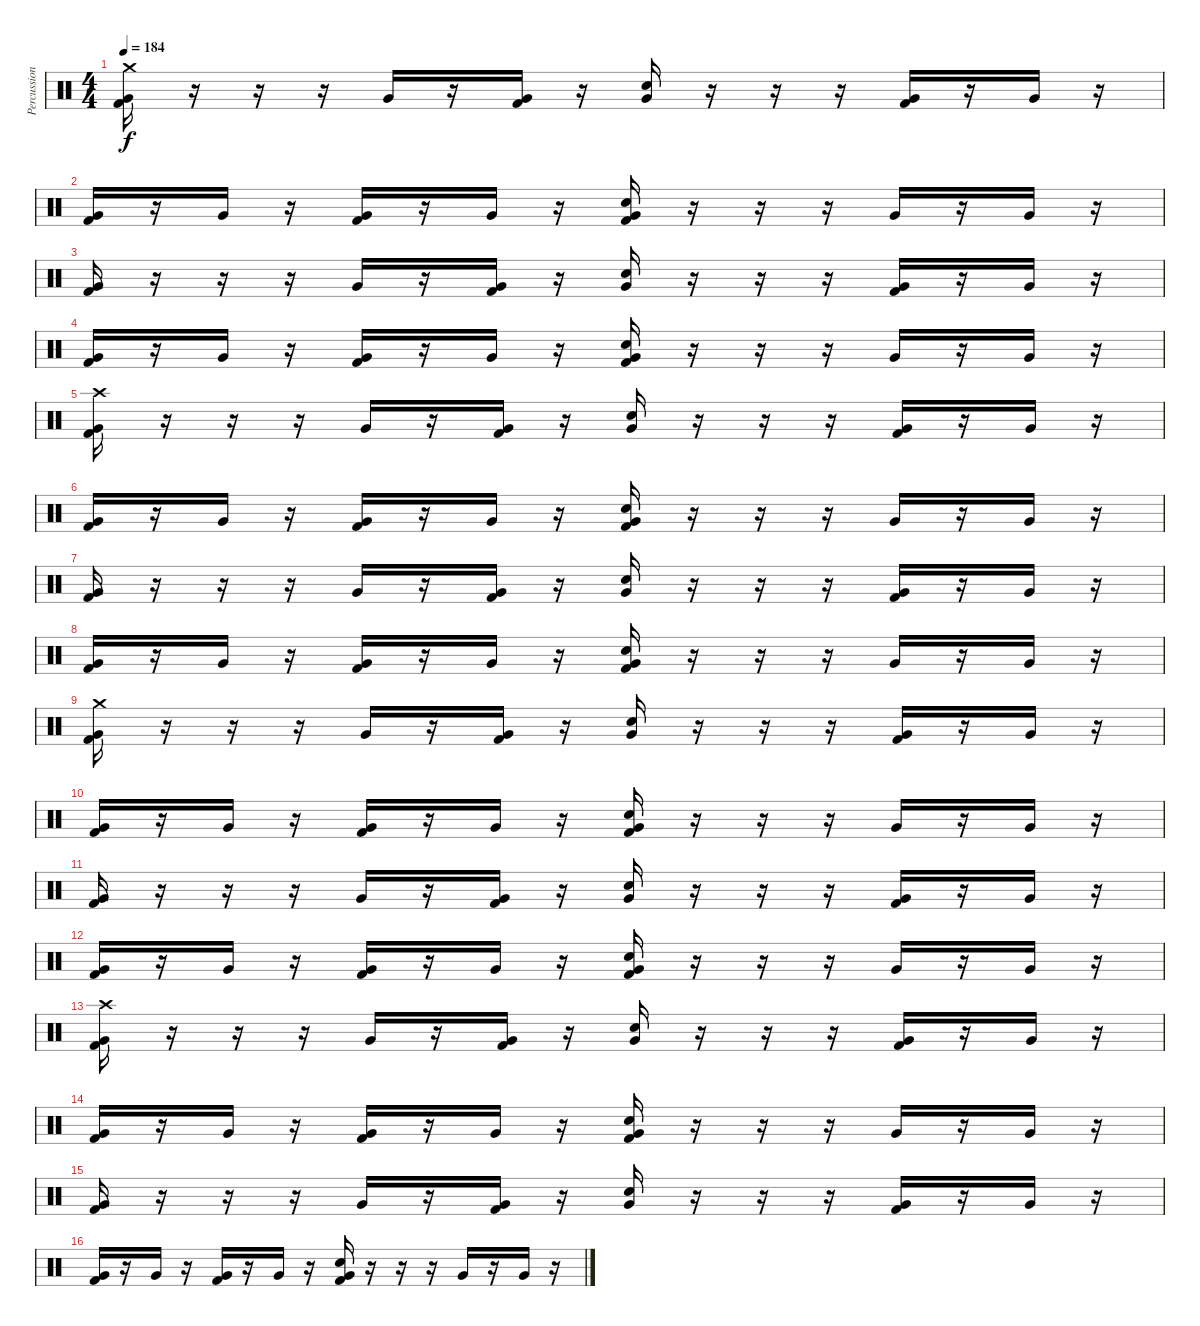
\track ("Percussion" "Percussion") {instrument percussion}
\staff {score}
\articulation defaults
\ts (4 4)
\tempo 184
\clef neutral
\ks c
("Crash medium (hit)" "Very Low Tom (hit)" "Kick (hit) 2").16{dy f} r.16 r.16 r.16 "Very Low Tom (hit)".16 r.16 ("Very Low Tom (hit)" "Kick (hit) 2").16 r.16 ("Electric Snare (hit)" "Very Low Tom (hit)").16 r.16 r.16 r.16 ("Very Low Tom (hit)" "Kick (hit) 2").16 r.16 "Very Low Tom (hit)".16 r.16 |
("Very Low Tom (hit)" "Kick (hit) 2").16 r.16 "Very Low Tom (hit)".16 r.16 ("Very Low Tom (hit)" "Kick (hit) 2").16 r.16 "Very Low Tom (hit)".16 r.16 ("Electric Snare (hit)" "Very Low Tom (hit)" "Kick (hit) 2").16 r.16 r.16 r.16 "Very Low Tom (hit)".16 r.16 "Very Low Tom (hit)".16 r.16 |
("Very Low Tom (hit)" "Kick (hit) 2").16 r.16 r.16 r.16 "Very Low Tom (hit)".16 r.16 ("Very Low Tom (hit)" "Kick (hit) 2").16 r.16 ("Electric Snare (hit)" "Very Low Tom (hit)").16 r.16 r.16 r.16 ("Very Low Tom (hit)" "Kick (hit) 2").16 r.16 "Very Low Tom (hit)".16 r.16 |
("Very Low Tom (hit)" "Kick (hit) 2").16 r.16 "Very Low Tom (hit)".16 r.16 ("Very Low Tom (hit)" "Kick (hit) 2").16 r.16 "Very Low Tom (hit)".16 r.16 ("Electric Snare (hit)" "Very Low Tom (hit)" "Kick (hit) 2").16 r.16 r.16 r.16 "Very Low Tom (hit)".16 r.16 "Very Low Tom (hit)".16 r.16 |
("Crash high (hit)" "Very Low Tom (hit)" "Kick (hit) 2").16 r.16 r.16 r.16 "Very Low Tom (hit)".16 r.16 ("Very Low Tom (hit)" "Kick (hit) 2").16 r.16 ("Electric Snare (hit)" "Very Low Tom (hit)").16 r.16 r.16 r.16 ("Very Low Tom (hit)" "Kick (hit) 2").16 r.16 "Very Low Tom (hit)".16 r.16 |
("Very Low Tom (hit)" "Kick (hit) 2").16 r.16 "Very Low Tom (hit)".16 r.16 ("Very Low Tom (hit)" "Kick (hit) 2").16 r.16 "Very Low Tom (hit)".16 r.16 ("Electric Snare (hit)" "Very Low Tom (hit)" "Kick (hit) 2").16 r.16 r.16 r.16 "Very Low Tom (hit)".16 r.16 "Very Low Tom (hit)".16 r.16 |
("Very Low Tom (hit)" "Kick (hit) 2").16 r.16 r.16 r.16 "Very Low Tom (hit)".16 r.16 ("Very Low Tom (hit)" "Kick (hit) 2").16 r.16 ("Electric Snare (hit)" "Very Low Tom (hit)").16 r.16 r.16 r.16 ("Very Low Tom (hit)" "Kick (hit) 2").16 r.16 "Very Low Tom (hit)".16 r.16 |
("Very Low Tom (hit)" "Kick (hit) 2").16 r.16 "Very Low Tom (hit)".16 r.16 ("Very Low Tom (hit)" "Kick (hit) 2").16 r.16 "Very Low Tom (hit)".16 r.16 ("Electric Snare (hit)" "Very Low Tom (hit)" "Kick (hit) 2").16 r.16 r.16 r.16 "Very Low Tom (hit)".16 r.16 "Very Low Tom (hit)".16 r.16 |
("Crash medium (hit)" "Very Low Tom (hit)" "Kick (hit) 2").16 r.16 r.16 r.16 "Very Low Tom (hit)".16 r.16 ("Very Low Tom (hit)" "Kick (hit) 2").16 r.16 ("Electric Snare (hit)" "Very Low Tom (hit)").16 r.16 r.16 r.16 ("Very Low Tom (hit)" "Kick (hit) 2").16 r.16 "Very Low Tom (hit)".16 r.16 |
("Very Low Tom (hit)" "Kick (hit) 2").16 r.16 "Very Low Tom (hit)".16 r.16 ("Very Low Tom (hit)" "Kick (hit) 2").16 r.16 "Very Low Tom (hit)".16 r.16 ("Electric Snare (hit)" "Very Low Tom (hit)" "Kick (hit) 2").16 r.16 r.16 r.16 "Very Low Tom (hit)".16 r.16 "Very Low Tom (hit)".16 r.16 |
("Very Low Tom (hit)" "Kick (hit) 2").16 r.16 r.16 r.16 "Very Low Tom (hit)".16 r.16 ("Very Low Tom (hit)" "Kick (hit) 2").16 r.16 ("Electric Snare (hit)" "Very Low Tom (hit)").16 r.16 r.16 r.16 ("Very Low Tom (hit)" "Kick (hit) 2").16 r.16 "Very Low Tom (hit)".16 r.16 |
("Very Low Tom (hit)" "Kick (hit) 2").16 r.16 "Very Low Tom (hit)".16 r.16 ("Very Low Tom (hit)" "Kick (hit) 2").16 r.16 "Very Low Tom (hit)".16 r.16 ("Electric Snare (hit)" "Very Low Tom (hit)" "Kick (hit) 2").16 r.16 r.16 r.16 "Very Low Tom (hit)".16 r.16 "Very Low Tom (hit)".16 r.16 |
("Crash high (hit)" "Very Low Tom (hit)" "Kick (hit) 2").16 r.16 r.16 r.16 "Very Low Tom (hit)".16 r.16 ("Very Low Tom (hit)" "Kick (hit) 2").16 r.16 ("Electric Snare (hit)" "Very Low Tom (hit)").16 r.16 r.16 r.16 ("Very Low Tom (hit)" "Kick (hit) 2").16 r.16 "Very Low Tom (hit)".16 r.16 |
("Very Low Tom (hit)" "Kick (hit) 2").16 r.16 "Very Low Tom (hit)".16 r.16 ("Very Low Tom (hit)" "Kick (hit) 2").16 r.16 "Very Low Tom (hit)".16 r.16 ("Electric Snare (hit)" "Very Low Tom (hit)" "Kick (hit) 2").16 r.16 r.16 r.16 "Very Low Tom (hit)".16 r.16 "Very Low Tom (hit)".16 r.16 |
("Very Low Tom (hit)" "Kick (hit) 2").16 r.16 r.16 r.16 "Very Low Tom (hit)".16 r.16 ("Very Low Tom (hit)" "Kick (hit) 2").16 r.16 ("Electric Snare (hit)" "Very Low Tom (hit)").16 r.16 r.16 r.16 ("Very Low Tom (hit)" "Kick (hit) 2").16 r.16 "Very Low Tom (hit)".16 r.16 |
("Very Low Tom (hit)" "Kick (hit) 2").16 r.16 "Very Low Tom (hit)".16 r.16 ("Very Low Tom (hit)" "Kick (hit) 2").16 r.16 "Very Low Tom (hit)".16 r.16 ("Electric Snare (hit)" "Very Low Tom (hit)" "Kick (hit) 2").16 r.16 r.16 r.16 "Very Low Tom (hit)".16 r.16 "Very Low Tom (hit)".16 r.16
